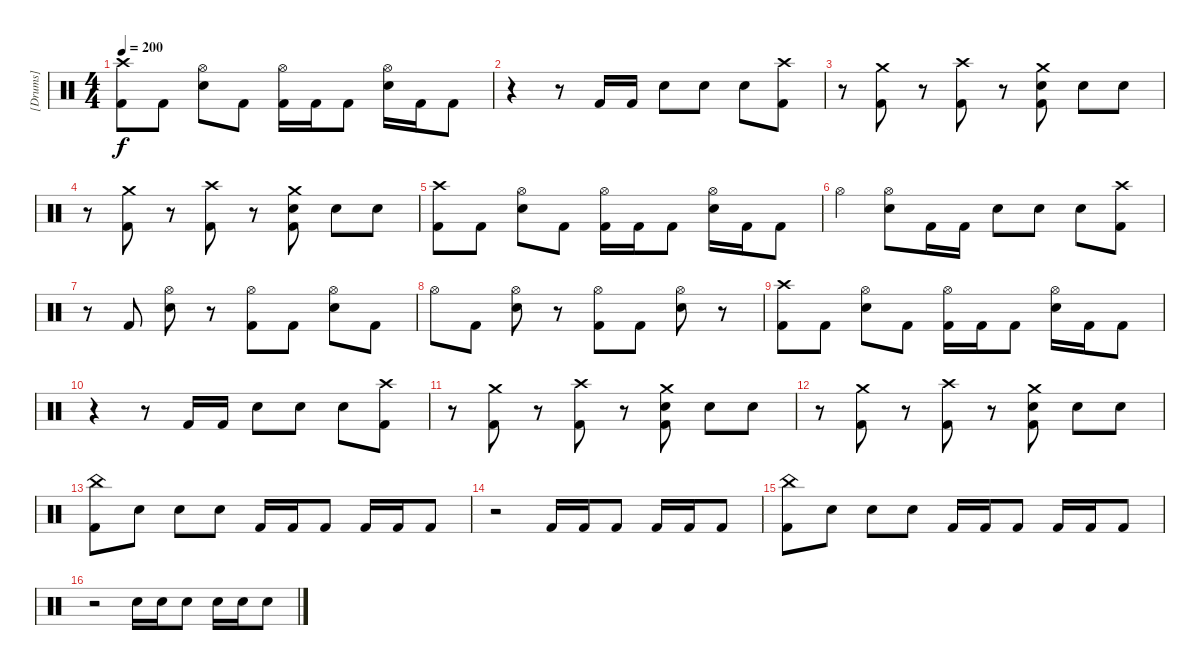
\track ("[Drums]" "[Drums]") {instrument percussion}
\staff {score}
\articulation defaults
\ts (4 4)
\tempo 200
\clef neutral
\ks c
("Crash high (hit)" "Kick (hit) 2").8{dy f} "Kick (hit) 2".8 ("Hi-Hat (open)" "Electric Snare (hit)").8 "Kick (hit) 2".8 ("Hi-Hat (open)" "Kick (hit) 2").16 "Kick (hit) 2".16 "Kick (hit) 2".8 ("Hi-Hat (open)" "Electric Snare (hit)").16 "Kick (hit) 2".16 "Kick (hit) 2".8 |
r.4 r.8 "Kick (hit) 2".16 "Kick (hit) 2".16 "Electric Snare (hit)".8 "Electric Snare (hit)".8 "Electric Snare (hit)".8 ("Crash high (hit)" "Kick (hit) 2").8 |
r.8 ("Crash medium (hit)" "Kick (hit) 2").8 r.8 ("Crash high (hit)" "Kick (hit) 2").8 r.8 ("Crash medium (hit)" "Electric Snare (hit)" "Kick (hit) 2").8 "Electric Snare (hit)".8 "Electric Snare (hit)".8 |
r.8 ("Crash medium (hit)" "Kick (hit) 2").8 r.8 ("Crash high (hit)" "Kick (hit) 2").8 r.8 ("Crash medium (hit)" "Electric Snare (hit)" "Kick (hit) 2").8 "Electric Snare (hit)".8 "Electric Snare (hit)".8 |
("Crash high (hit)" "Kick (hit) 2").8 "Kick (hit) 2".8 ("Hi-Hat (open)" "Electric Snare (hit)").8 "Kick (hit) 2".8 ("Hi-Hat (open)" "Kick (hit) 2").16 "Kick (hit) 2".16 "Kick (hit) 2".8 ("Hi-Hat (open)" "Electric Snare (hit)").16 "Kick (hit) 2".16 "Kick (hit) 2".8 |
"Hi-Hat (open)".4 ("Hi-Hat (open)" "Electric Snare (hit)").8 "Kick (hit) 2".16 "Kick (hit) 2".16 "Electric Snare (hit)".8 "Electric Snare (hit)".8 "Electric Snare (hit)".8 ("Crash high (hit)" "Kick (hit) 2").8 |
r.8 "Kick (hit) 2".8 ("Hi-Hat (open)" "Electric Snare (hit)").8 r.8 ("Hi-Hat (open)" "Kick (hit) 2").8 "Kick (hit) 2".8 ("Hi-Hat (open)" "Electric Snare (hit)").8 "Kick (hit) 2".8 |
"Hi-Hat (open)".8 "Kick (hit) 2".8 ("Hi-Hat (open)" "Electric Snare (hit)").8 r.8 ("Hi-Hat (open)" "Kick (hit) 2").8 "Kick (hit) 2".8 ("Hi-Hat (open)" "Electric Snare (hit)").8 r.8 |
("Crash high (hit)" "Kick (hit) 2").8 "Kick (hit) 2".8 ("Hi-Hat (open)" "Electric Snare (hit)").8 "Kick (hit) 2".8 ("Hi-Hat (open)" "Kick (hit) 2").16 "Kick (hit) 2".16 "Kick (hit) 2".8 ("Hi-Hat (open)" "Electric Snare (hit)").16 "Kick (hit) 2".16 "Kick (hit) 2".8 |
r.4 r.8 "Kick (hit) 2".16 "Kick (hit) 2".16 "Electric Snare (hit)".8 "Electric Snare (hit)".8 "Electric Snare (hit)".8 ("Crash high (hit)" "Kick (hit) 2").8 |
r.8 ("Crash medium (hit)" "Kick (hit) 2").8 r.8 ("Crash high (hit)" "Kick (hit) 2").8 r.8 ("Crash medium (hit)" "Electric Snare (hit)" "Kick (hit) 2").8 "Electric Snare (hit)".8 "Electric Snare (hit)".8 |
r.8 ("Crash medium (hit)" "Kick (hit) 2").8 r.8 ("Crash high (hit)" "Kick (hit) 2").8 r.8 ("Crash medium (hit)" "Electric Snare (hit)" "Kick (hit) 2").8 "Electric Snare (hit)".8 "Electric Snare (hit)".8 |
("China (hit)" "Kick (hit) 2").8 "Electric Snare (hit)".8 "Electric Snare (hit)".8 "Electric Snare (hit)".8 "Kick (hit) 2".16 "Kick (hit) 2".16 "Kick (hit) 2".8 "Kick (hit) 2".16 "Kick (hit) 2".16 "Kick (hit) 2".8 |
r.2 "Kick (hit) 2".16 "Kick (hit) 2".16 "Kick (hit) 2".8 "Kick (hit) 2".16 "Kick (hit) 2".16 "Kick (hit) 2".8 |
("China (hit)" "Kick (hit) 2").8 "Electric Snare (hit)".8 "Electric Snare (hit)".8 "Electric Snare (hit)".8 "Kick (hit) 2".16 "Kick (hit) 2".16 "Kick (hit) 2".8 "Kick (hit) 2".16 "Kick (hit) 2".16 "Kick (hit) 2".8 |
r.2 "Electric Snare (hit)".16 "Electric Snare (hit)".16 "Electric Snare (hit)".8 "Electric Snare (hit)".16 "Electric Snare (hit)".16 "Electric Snare (hit)".8
